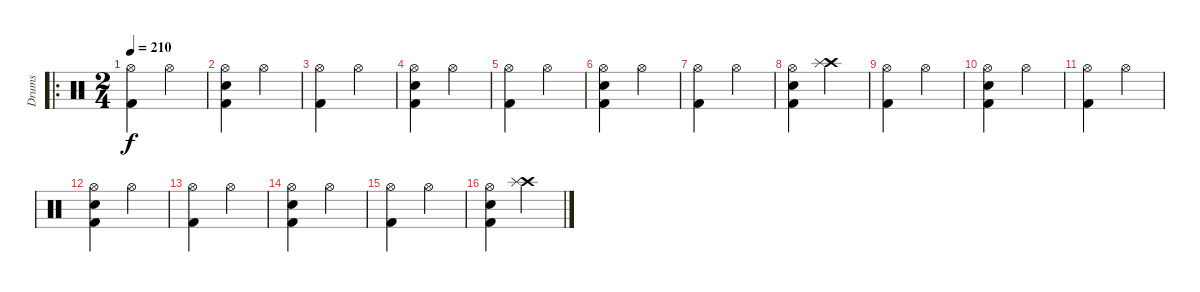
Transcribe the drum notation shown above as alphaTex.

\track ("Drums" "Drums") {instrument percussion}
\staff {score}
\articulation defaults
\ro
\ts (2 4)
\tempo 210
\clef neutral
\ks c
("Hi-Hat (open)" "Kick (hit) 2").4{dy f} "Hi-Hat (open)".4 |
("Hi-Hat (open)" "Electric Snare (hit)" "Kick (hit) 2").4 "Hi-Hat (open)".4 |
("Hi-Hat (open)" "Kick (hit) 2").4 "Hi-Hat (open)".4 |
("Hi-Hat (open)" "Electric Snare (hit)" "Kick (hit) 2").4 "Hi-Hat (open)".4 |
("Hi-Hat (open)" "Kick (hit) 2").4 "Hi-Hat (open)".4 |
("Hi-Hat (open)" "Electric Snare (hit)" "Kick (hit) 2").4 "Hi-Hat (open)".4 |
("Hi-Hat (open)" "Kick (hit) 2").4 "Hi-Hat (open)".4 |
("Hi-Hat (open)" "Electric Snare (hit)" "Kick (hit) 2").4 ("Crash high (hit)" "Splash (hit)").4 |
("Hi-Hat (open)" "Kick (hit) 2").4 "Hi-Hat (open)".4 |
("Hi-Hat (open)" "Electric Snare (hit)" "Kick (hit) 2").4 "Hi-Hat (open)".4 |
("Hi-Hat (open)" "Kick (hit) 2").4 "Hi-Hat (open)".4 |
("Hi-Hat (open)" "Electric Snare (hit)" "Kick (hit) 2").4 "Hi-Hat (open)".4 |
("Hi-Hat (open)" "Kick (hit) 2").4 "Hi-Hat (open)".4 |
("Hi-Hat (open)" "Electric Snare (hit)" "Kick (hit) 2").4 "Hi-Hat (open)".4 |
("Hi-Hat (open)" "Kick (hit) 2").4 "Hi-Hat (open)".4 |
("Hi-Hat (open)" "Electric Snare (hit)" "Kick (hit) 2").4 ("Crash high (hit)" "Splash (hit)").4
